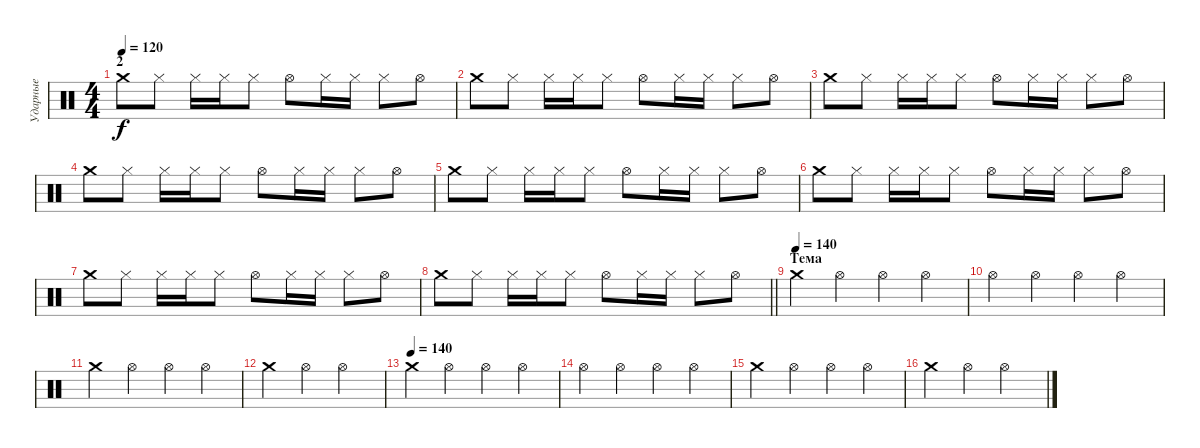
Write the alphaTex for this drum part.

\track ("Ударные" "Ударные") {instrument percussion}
\staff {score}
\articulation defaults
\ts (4 4)
\section ("" "2")
\tempo 120
\clef neutral
\ks c "Crash medium (hit)".8{dy f} "Hi-Hat (closed)".8 "Hi-Hat (closed)".16 "Hi-Hat (closed)".16 "Hi-Hat (closed)".8 "Hi-Hat (open)".8 "Hi-Hat (closed)".16 "Hi-Hat (closed)".16 "Hi-Hat (closed)".8 "Hi-Hat (open)".8
|
"Crash medium (hit)".8 "Hi-Hat (closed)".8 "Hi-Hat (closed)".16 "Hi-Hat (closed)".16 "Hi-Hat (closed)".8 "Hi-Hat (open)".8 "Hi-Hat (closed)".16 "Hi-Hat (closed)".16 "Hi-Hat (closed)".8 "Hi-Hat (open)".8 |
"Crash medium (hit)".8 "Hi-Hat (closed)".8 "Hi-Hat (closed)".16 "Hi-Hat (closed)".16 "Hi-Hat (closed)".8 "Hi-Hat (open)".8 "Hi-Hat (closed)".16 "Hi-Hat (closed)".16 "Hi-Hat (closed)".8 "Hi-Hat (open)".8 |
"Crash medium (hit)".8 "Hi-Hat (closed)".8 "Hi-Hat (closed)".16 "Hi-Hat (closed)".16 "Hi-Hat (closed)".8 "Hi-Hat (open)".8 "Hi-Hat (closed)".16 "Hi-Hat (closed)".16 "Hi-Hat (closed)".8 "Hi-Hat (open)".8 |
"Crash medium (hit)".8 "Hi-Hat (closed)".8 "Hi-Hat (closed)".16 "Hi-Hat (closed)".16 "Hi-Hat (closed)".8 "Hi-Hat (open)".8 "Hi-Hat (closed)".16 "Hi-Hat (closed)".16 "Hi-Hat (closed)".8 "Hi-Hat (open)".8 |
"Crash medium (hit)".8 "Hi-Hat (closed)".8 "Hi-Hat (closed)".16 "Hi-Hat (closed)".16 "Hi-Hat (closed)".8 "Hi-Hat (open)".8 "Hi-Hat (closed)".16 "Hi-Hat (closed)".16 "Hi-Hat (closed)".8 "Hi-Hat (open)".8 |
"Crash medium (hit)".8 "Hi-Hat (closed)".8 "Hi-Hat (closed)".16 "Hi-Hat (closed)".16 "Hi-Hat (closed)".8 "Hi-Hat (open)".8 "Hi-Hat (closed)".16 "Hi-Hat (closed)".16 "Hi-Hat (closed)".8 "Hi-Hat (open)".8 |
\barLineRight lightlight "Crash medium (hit)".8 "Hi-Hat (closed)".8 "Hi-Hat (closed)".16 "Hi-Hat (closed)".16 "Hi-Hat (closed)".8 "Hi-Hat (open)".8 "Hi-Hat (closed)".16 "Hi-Hat (closed)".16 "Hi-Hat (closed)".8 "Hi-Hat (open)".8
|
\section ("" "Тема")
\tempo (140)
"Crash medium (hit)".4 "Hi-Hat (open)".4 "Hi-Hat (open)".4 "Hi-Hat (open)".4 |
"Hi-Hat (open)".4 "Hi-Hat (open)".4 "Hi-Hat (open)".4 "Hi-Hat (open)".4 |
"Crash medium (hit)".4 "Hi-Hat (open)".4 "Hi-Hat (open)".4 "Hi-Hat (open)".4 |
"Crash medium (hit)".4 "Hi-Hat (open)".4 "Hi-Hat (open)".2 |
\tempo (140)
"Crash medium (hit)".4 "Hi-Hat (open)".4 "Hi-Hat (open)".4 "Hi-Hat (open)".4 |
"Hi-Hat (open)".4 "Hi-Hat (open)".4 "Hi-Hat (open)".4 "Hi-Hat (open)".4 |
"Crash medium (hit)".4 "Hi-Hat (open)".4 "Hi-Hat (open)".4 "Hi-Hat (open)".4 |
"Crash medium (hit)".4 "Hi-Hat (open)".4 "Hi-Hat (open)".2
